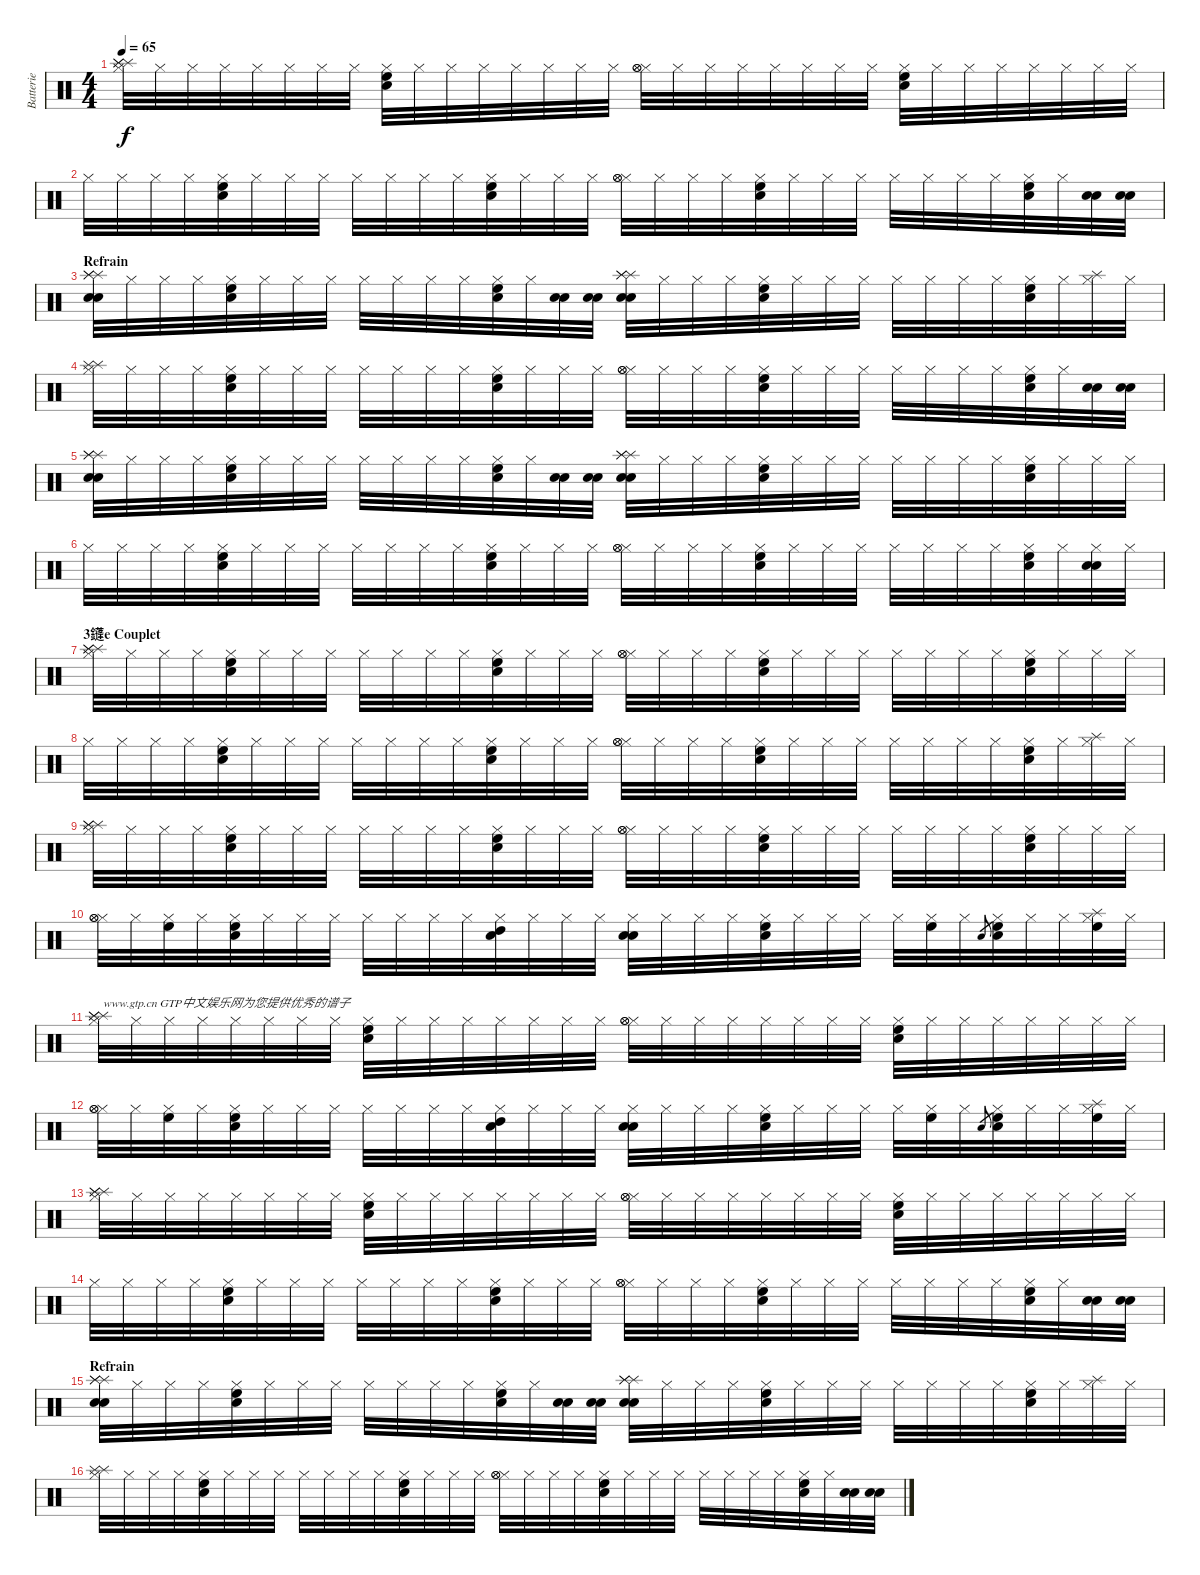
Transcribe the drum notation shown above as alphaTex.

\track ("Batterie" "Batterie") {instrument percussion}
\staff {score}
\articulation defaults
\ts (4 4)
\tempo 65
\clef neutral
\ks c
("Hi-Hat (closed)" "Splash (hit)" "Splash (hit)" "Splash (hit)").32{dy f} "Hi-Hat (closed)".32 "Hi-Hat (closed)".32 "Hi-Hat (closed)".32 "Hi-Hat (closed)".32 "Hi-Hat (closed)".32 "Hi-Hat (closed)".32 "Hi-Hat (closed)".32 ("Hi-Hat (closed)" "Snare (hit) 2" "High Floor Tom (hit)").32 "Hi-Hat (closed)".32 "Hi-Hat (closed)".32 "Hi-Hat (closed)".32 "Hi-Hat (closed)".32 "Hi-Hat (closed)".32 "Hi-Hat (closed)".32 "Hi-Hat (closed)".32 ("Hi-Hat (closed)" "Hi-Hat (open)" "Hi-Hat (open)").32 "Hi-Hat (closed)".32 "Hi-Hat (closed)".32 "Hi-Hat (closed)".32 "Hi-Hat (closed)".32 "Hi-Hat (closed)".32 "Hi-Hat (closed)".32 "Hi-Hat (closed)".32 ("Hi-Hat (closed)" "Snare (hit) 2" "High Floor Tom (hit)").32 "Hi-Hat (closed)".32 "Hi-Hat (closed)".32 "Hi-Hat (closed)".32 "Hi-Hat (closed)".32 "Hi-Hat (closed)".32 "Hi-Hat (closed)".32 "Hi-Hat (closed)".32 |
"Hi-Hat (closed)".32 "Hi-Hat (closed)".32 "Hi-Hat (closed)".32 "Hi-Hat (closed)".32 ("Hi-Hat (closed)" "Snare (hit) 2" "High Floor Tom (hit)").32 "Hi-Hat (closed)".32 "Hi-Hat (closed)".32 "Hi-Hat (closed)".32 "Hi-Hat (closed)".32 "Hi-Hat (closed)".32 "Hi-Hat (closed)".32 "Hi-Hat (closed)".32 ("Hi-Hat (closed)" "Snare (hit) 2" "High Floor Tom (hit)").32 "Hi-Hat (closed)".32 "Hi-Hat (closed)".32 "Hi-Hat (closed)".32 ("Hi-Hat (closed)" "Hi-Hat (open)" "Hi-Hat (open)").32 "Hi-Hat (closed)".32 "Hi-Hat (closed)".32 "Hi-Hat (closed)".32 ("Hi-Hat (closed)" "Snare (hit) 2" "High Floor Tom (hit)").32 "Hi-Hat (closed)".32 "Hi-Hat (closed)".32 "Hi-Hat (closed)".32 "Hi-Hat (closed)".32 "Hi-Hat (closed)".32 "Hi-Hat (closed)".32 "Hi-Hat (closed)".32 ("Hi-Hat (closed)" "Snare (hit) 2" "High Floor Tom (hit)").32 "Hi-Hat (closed)".32 ("Snare (hit) 2" "Snare (hit) 2").32 ("Snare (hit) 2" "Snare (hit) 2").32 |
\section ("" "Refrain")
("Snare (hit) 2" "Snare (hit) 2" "Splash (hit)" "Splash (hit)" "Splash (hit)").32 "Hi-Hat (closed)".32 "Hi-Hat (closed)".32 "Hi-Hat (closed)".32 ("Hi-Hat (closed)" "Snare (hit) 2" "High Floor Tom (hit)").32 "Hi-Hat (closed)".32 "Hi-Hat (closed)".32 "Hi-Hat (closed)".32 "Hi-Hat (closed)".32 "Hi-Hat (closed)".32 "Hi-Hat (closed)".32 "Hi-Hat (closed)".32 ("Hi-Hat (closed)" "Snare (hit) 2" "High Floor Tom (hit)").32 "Hi-Hat (closed)".32 ("Snare (hit) 2" "Snare (hit) 2").32 ("Snare (hit) 2" "Snare (hit) 2").32 ("Snare (hit) 2" "Snare (hit) 2" "Splash (hit)" "Splash (hit)" "Splash (hit)").32 "Hi-Hat (closed)".32 "Hi-Hat (closed)".32 "Hi-Hat (closed)".32 ("Hi-Hat (closed)" "Snare (hit) 2" "High Floor Tom (hit)").32 "Hi-Hat (closed)".32 "Hi-Hat (closed)".32 "Hi-Hat (closed)".32 "Hi-Hat (closed)".32 "Hi-Hat (closed)".32 "Hi-Hat (closed)".32 "Hi-Hat (closed)".32 ("Hi-Hat (closed)" "Snare (hit) 2" "High Floor Tom (hit)").32 "Hi-Hat (closed)".32 ("Hi-Hat (closed)" "Splash (hit)").32 "Hi-Hat (closed)".32 |
("Hi-Hat (closed)" "Splash (hit)" "Splash (hit)").32 "Hi-Hat (closed)".32 "Hi-Hat (closed)".32 "Hi-Hat (closed)".32 ("Hi-Hat (closed)" "Snare (hit) 2" "High Floor Tom (hit)").32 "Hi-Hat (closed)".32 "Hi-Hat (closed)".32 "Hi-Hat (closed)".32 "Hi-Hat (closed)".32 "Hi-Hat (closed)".32 "Hi-Hat (closed)".32 "Hi-Hat (closed)".32 ("Hi-Hat (closed)" "Snare (hit) 2" "High Floor Tom (hit)").32 "Hi-Hat (closed)".32 "Hi-Hat (closed)".32 "Hi-Hat (closed)".32 ("Hi-Hat (closed)" "Hi-Hat (open)" "Hi-Hat (open)").32 "Hi-Hat (closed)".32 "Hi-Hat (closed)".32 "Hi-Hat (closed)".32 ("Hi-Hat (closed)" "Snare (hit) 2" "High Floor Tom (hit)").32 "Hi-Hat (closed)".32 "Hi-Hat (closed)".32 "Hi-Hat (closed)".32 "Hi-Hat (closed)".32 "Hi-Hat (closed)".32 "Hi-Hat (closed)".32 "Hi-Hat (closed)".32 ("Hi-Hat (closed)" "Snare (hit) 2" "High Floor Tom (hit)").32 "Hi-Hat (closed)".32 ("Snare (hit) 2" "Snare (hit) 2").32 ("Snare (hit) 2" "Snare (hit) 2").32 |
("Snare (hit) 2" "Snare (hit) 2" "Splash (hit)" "Splash (hit)" "Splash (hit)").32 "Hi-Hat (closed)".32 "Hi-Hat (closed)".32 "Hi-Hat (closed)".32 ("Hi-Hat (closed)" "Snare (hit) 2" "High Floor Tom (hit)").32 "Hi-Hat (closed)".32 "Hi-Hat (closed)".32 "Hi-Hat (closed)".32 "Hi-Hat (closed)".32 "Hi-Hat (closed)".32 "Hi-Hat (closed)".32 "Hi-Hat (closed)".32 ("Hi-Hat (closed)" "Snare (hit) 2" "High Floor Tom (hit)").32 "Hi-Hat (closed)".32 ("Snare (hit) 2" "Snare (hit) 2").32 ("Snare (hit) 2" "Snare (hit) 2").32 ("Snare (hit) 2" "Snare (hit) 2" "Splash (hit)" "Splash (hit)" "Splash (hit)").32 "Hi-Hat (closed)".32 "Hi-Hat (closed)".32 "Hi-Hat (closed)".32 ("Hi-Hat (closed)" "Snare (hit) 2" "High Floor Tom (hit)").32 "Hi-Hat (closed)".32 "Hi-Hat (closed)".32 "Hi-Hat (closed)".32 "Hi-Hat (closed)".32 "Hi-Hat (closed)".32 "Hi-Hat (closed)".32 "Hi-Hat (closed)".32 ("Hi-Hat (closed)" "Snare (hit) 2" "High Floor Tom (hit)").32 "Hi-Hat (closed)".32 "Hi-Hat (closed)".32 "Hi-Hat (closed)".32 |
"Hi-Hat (closed)".32 "Hi-Hat (closed)".32 "Hi-Hat (closed)".32 "Hi-Hat (closed)".32 ("Hi-Hat (closed)" "Snare (hit) 2" "High Floor Tom (hit)").32 "Hi-Hat (closed)".32 "Hi-Hat (closed)".32 "Hi-Hat (closed)".32 "Hi-Hat (closed)".32 "Hi-Hat (closed)".32 "Hi-Hat (closed)".32 "Hi-Hat (closed)".32 ("Hi-Hat (closed)" "Snare (hit) 2" "High Floor Tom (hit)").32 "Hi-Hat (closed)".32 "Hi-Hat (closed)".32 "Hi-Hat (closed)".32 ("Hi-Hat (closed)" "Hi-Hat (open)" "Hi-Hat (open)").32 "Hi-Hat (closed)".32 "Hi-Hat (closed)".32 "Hi-Hat (closed)".32 ("Hi-Hat (closed)" "Snare (hit) 2" "High Floor Tom (hit)").32 "Hi-Hat (closed)".32 "Hi-Hat (closed)".32 "Hi-Hat (closed)".32 "Hi-Hat (closed)".32 "Hi-Hat (closed)".32 "Hi-Hat (closed)".32 "Hi-Hat (closed)".32 ("Hi-Hat (closed)" "Snare (hit) 2" "High Floor Tom (hit)").32 "Hi-Hat (closed)".32 ("Hi-Hat (closed)" "Snare (hit) 2" "Snare (hit) 2").32 "Hi-Hat (closed)".32 |
\section ("" "3鑝e Couplet")
("Hi-Hat (closed)" "Splash (hit)" "Splash (hit)" "Splash (hit)").32 "Hi-Hat (closed)".32 "Hi-Hat (closed)".32 "Hi-Hat (closed)".32 ("Hi-Hat (closed)" "Snare (hit) 2" "High Floor Tom (hit)").32 "Hi-Hat (closed)".32 "Hi-Hat (closed)".32 "Hi-Hat (closed)".32 "Hi-Hat (closed)".32 "Hi-Hat (closed)".32 "Hi-Hat (closed)".32 "Hi-Hat (closed)".32 ("Hi-Hat (closed)" "Snare (hit) 2" "High Floor Tom (hit)").32 "Hi-Hat (closed)".32 "Hi-Hat (closed)".32 "Hi-Hat (closed)".32 ("Hi-Hat (closed)" "Hi-Hat (open)" "Hi-Hat (open)").32 "Hi-Hat (closed)".32 "Hi-Hat (closed)".32 "Hi-Hat (closed)".32 ("Hi-Hat (closed)" "Snare (hit) 2" "High Floor Tom (hit)").32 "Hi-Hat (closed)".32 "Hi-Hat (closed)".32 "Hi-Hat (closed)".32 "Hi-Hat (closed)".32 "Hi-Hat (closed)".32 "Hi-Hat (closed)".32 "Hi-Hat (closed)".32 ("Hi-Hat (closed)" "Snare (hit) 2" "High Floor Tom (hit)").32 "Hi-Hat (closed)".32 "Hi-Hat (closed)".32 "Hi-Hat (closed)".32 |
"Hi-Hat (closed)".32 "Hi-Hat (closed)".32 "Hi-Hat (closed)".32 "Hi-Hat (closed)".32 ("Hi-Hat (closed)" "Snare (hit) 2" "High Floor Tom (hit)").32 "Hi-Hat (closed)".32 "Hi-Hat (closed)".32 "Hi-Hat (closed)".32 "Hi-Hat (closed)".32 "Hi-Hat (closed)".32 "Hi-Hat (closed)".32 "Hi-Hat (closed)".32 ("Hi-Hat (closed)" "Snare (hit) 2" "High Floor Tom (hit)").32 "Hi-Hat (closed)".32 "Hi-Hat (closed)".32 "Hi-Hat (closed)".32 ("Hi-Hat (closed)" "Hi-Hat (open)" "Hi-Hat (open)").32 "Hi-Hat (closed)".32 "Hi-Hat (closed)".32 "Hi-Hat (closed)".32 ("Hi-Hat (closed)" "Snare (hit) 2" "High Floor Tom (hit)").32 "Hi-Hat (closed)".32 "Hi-Hat (closed)".32 "Hi-Hat (closed)".32 "Hi-Hat (closed)".32 "Hi-Hat (closed)".32 "Hi-Hat (closed)".32 "Hi-Hat (closed)".32 ("Hi-Hat (closed)" "Snare (hit) 2" "High Floor Tom (hit)").32 "Hi-Hat (closed)".32 ("Hi-Hat (closed)" "Splash (hit)").32 "Hi-Hat (closed)".32 |
("Hi-Hat (closed)" "Splash (hit)" "Splash (hit)" "Splash (hit)").32 "Hi-Hat (closed)".32 "Hi-Hat (closed)".32 "Hi-Hat (closed)".32 ("Hi-Hat (closed)" "Snare (hit) 2" "High Floor Tom (hit)").32 "Hi-Hat (closed)".32 "Hi-Hat (closed)".32 "Hi-Hat (closed)".32 "Hi-Hat (closed)".32 "Hi-Hat (closed)".32 "Hi-Hat (closed)".32 "Hi-Hat (closed)".32 ("Hi-Hat (closed)" "Snare (hit) 2" "High Floor Tom (hit)").32 "Hi-Hat (closed)".32 "Hi-Hat (closed)".32 "Hi-Hat (closed)".32 ("Hi-Hat (closed)" "Hi-Hat (open)" "Hi-Hat (open)").32 "Hi-Hat (closed)".32 "Hi-Hat (closed)".32 "Hi-Hat (closed)".32 ("Hi-Hat (closed)" "Snare (hit) 2" "High Floor Tom (hit)").32 "Hi-Hat (closed)".32 "Hi-Hat (closed)".32 "Hi-Hat (closed)".32 "Hi-Hat (closed)".32 "Hi-Hat (closed)".32 "Hi-Hat (closed)".32 "Hi-Hat (closed)".32 ("Hi-Hat (closed)" "Snare (hit) 2" "High Floor Tom (hit)").32 "Hi-Hat (closed)".32 "Hi-Hat (closed)".32 "Hi-Hat (closed)".32 |
("Hi-Hat (closed)" "Hi-Hat (open)" "Hi-Hat (open)").32 "Hi-Hat (closed)".32 ("Hi-Hat (closed)" "High Floor Tom (hit)").32 "Hi-Hat (closed)".32 ("Hi-Hat (closed)" "Snare (hit) 2" "High Floor Tom (hit)").32 "Hi-Hat (closed)".32 "Hi-Hat (closed)".32 "Hi-Hat (closed)".32 "Hi-Hat (closed)".32 "Hi-Hat (closed)".32 "Hi-Hat (closed)".32 "Hi-Hat (closed)".32 ("Hi-Hat (closed)" "Snare (hit) 2" "High Tom (hit)").32 "Hi-Hat (closed)".32 "Hi-Hat (closed)".32 "Hi-Hat (closed)".32 ("Hi-Hat (closed)" "Snare (hit) 2" "Snare (hit) 2").32 "Hi-Hat (closed)".32 "Hi-Hat (closed)".32 "Hi-Hat (closed)".32 ("Hi-Hat (closed)" "Snare (hit) 2" "High Floor Tom (hit)").32 "Hi-Hat (closed)".32 "Hi-Hat (closed)".32 "Hi-Hat (closed)".32 "Hi-Hat (closed)".32 ("Hi-Hat (closed)" "High Floor Tom (hit)").32 "Hi-Hat (closed)".32 "Snare (hit) 2".8{gr} ("Hi-Hat (closed)" "Snare (hit) 2" "High Floor Tom (hit)").32 "Hi-Hat (closed)".32 "Hi-Hat (closed)".32 ("Hi-Hat (closed)" "Splash (hit)" "High Floor Tom (hit)").32 "Hi-Hat (closed)".32 |
("Hi-Hat (closed)" "Splash (hit)" "Splash (hit)" "Splash (hit)").32{txt "www.gtp.cn GTP中文娱乐网为您提供优秀的谱子"} "Hi-Hat (closed)".32 "Hi-Hat (closed)".32 "Hi-Hat (closed)".32 "Hi-Hat (closed)".32 "Hi-Hat (closed)".32 "Hi-Hat (closed)".32 "Hi-Hat (closed)".32 ("Hi-Hat (closed)" "Snare (hit) 2" "High Floor Tom (hit)").32 "Hi-Hat (closed)".32 "Hi-Hat (closed)".32 "Hi-Hat (closed)".32 "Hi-Hat (closed)".32 "Hi-Hat (closed)".32 "Hi-Hat (closed)".32 "Hi-Hat (closed)".32 ("Hi-Hat (closed)" "Hi-Hat (open)" "Hi-Hat (open)").32 "Hi-Hat (closed)".32 "Hi-Hat (closed)".32 "Hi-Hat (closed)".32 "Hi-Hat (closed)".32 "Hi-Hat (closed)".32 "Hi-Hat (closed)".32 "Hi-Hat (closed)".32 ("Hi-Hat (closed)" "Snare (hit) 2" "High Floor Tom (hit)").32 "Hi-Hat (closed)".32 "Hi-Hat (closed)".32 "Hi-Hat (closed)".32 "Hi-Hat (closed)".32 "Hi-Hat (closed)".32 "Hi-Hat (closed)".32 "Hi-Hat (closed)".32 |
("Hi-Hat (closed)" "Hi-Hat (open)" "Hi-Hat (open)").32 "Hi-Hat (closed)".32 ("Hi-Hat (closed)" "High Floor Tom (hit)").32 "Hi-Hat (closed)".32 ("Hi-Hat (closed)" "Snare (hit) 2" "High Floor Tom (hit)").32 "Hi-Hat (closed)".32 "Hi-Hat (closed)".32 "Hi-Hat (closed)".32 "Hi-Hat (closed)".32 "Hi-Hat (closed)".32 "Hi-Hat (closed)".32 "Hi-Hat (closed)".32 ("Hi-Hat (closed)" "Snare (hit) 2" "High Tom (hit)").32 "Hi-Hat (closed)".32 "Hi-Hat (closed)".32 "Hi-Hat (closed)".32 ("Hi-Hat (closed)" "Snare (hit) 2" "Snare (hit) 2").32 "Hi-Hat (closed)".32 "Hi-Hat (closed)".32 "Hi-Hat (closed)".32 ("Hi-Hat (closed)" "Snare (hit) 2" "High Floor Tom (hit)").32 "Hi-Hat (closed)".32 "Hi-Hat (closed)".32 "Hi-Hat (closed)".32 "Hi-Hat (closed)".32 ("Hi-Hat (closed)" "High Floor Tom (hit)").32 "Hi-Hat (closed)".32 "Snare (hit) 2".8{gr} ("Hi-Hat (closed)" "Snare (hit) 2" "High Floor Tom (hit)").32 "Hi-Hat (closed)".32 "Hi-Hat (closed)".32 ("Hi-Hat (closed)" "Splash (hit)" "High Floor Tom (hit)").32 "Hi-Hat (closed)".32 |
("Hi-Hat (closed)" "Splash (hit)" "Splash (hit)" "Splash (hit)").32 "Hi-Hat (closed)".32 "Hi-Hat (closed)".32 "Hi-Hat (closed)".32 "Hi-Hat (closed)".32 "Hi-Hat (closed)".32 "Hi-Hat (closed)".32 "Hi-Hat (closed)".32 ("Hi-Hat (closed)" "Snare (hit) 2" "High Floor Tom (hit)").32 "Hi-Hat (closed)".32 "Hi-Hat (closed)".32 "Hi-Hat (closed)".32 "Hi-Hat (closed)".32 "Hi-Hat (closed)".32 "Hi-Hat (closed)".32 "Hi-Hat (closed)".32 ("Hi-Hat (closed)" "Hi-Hat (open)" "Hi-Hat (open)").32 "Hi-Hat (closed)".32 "Hi-Hat (closed)".32 "Hi-Hat (closed)".32 "Hi-Hat (closed)".32 "Hi-Hat (closed)".32 "Hi-Hat (closed)".32 "Hi-Hat (closed)".32 ("Hi-Hat (closed)" "Snare (hit) 2" "High Floor Tom (hit)").32 "Hi-Hat (closed)".32 "Hi-Hat (closed)".32 "Hi-Hat (closed)".32 "Hi-Hat (closed)".32 "Hi-Hat (closed)".32 "Hi-Hat (closed)".32 "Hi-Hat (closed)".32 |
"Hi-Hat (closed)".32 "Hi-Hat (closed)".32 "Hi-Hat (closed)".32 "Hi-Hat (closed)".32 ("Hi-Hat (closed)" "Snare (hit) 2" "High Floor Tom (hit)").32 "Hi-Hat (closed)".32 "Hi-Hat (closed)".32 "Hi-Hat (closed)".32 "Hi-Hat (closed)".32 "Hi-Hat (closed)".32 "Hi-Hat (closed)".32 "Hi-Hat (closed)".32 ("Hi-Hat (closed)" "Snare (hit) 2" "High Floor Tom (hit)").32 "Hi-Hat (closed)".32 "Hi-Hat (closed)".32 "Hi-Hat (closed)".32 ("Hi-Hat (closed)" "Hi-Hat (open)" "Hi-Hat (open)").32 "Hi-Hat (closed)".32 "Hi-Hat (closed)".32 "Hi-Hat (closed)".32 ("Hi-Hat (closed)" "Snare (hit) 2" "High Floor Tom (hit)").32 "Hi-Hat (closed)".32 "Hi-Hat (closed)".32 "Hi-Hat (closed)".32 "Hi-Hat (closed)".32 "Hi-Hat (closed)".32 "Hi-Hat (closed)".32 "Hi-Hat (closed)".32 ("Hi-Hat (closed)" "Snare (hit) 2" "High Floor Tom (hit)").32 "Hi-Hat (closed)".32 ("Snare (hit) 2" "Snare (hit) 2").32 ("Snare (hit) 2" "Snare (hit) 2").32 |
\section ("" "Refrain")
("Snare (hit) 2" "Snare (hit) 2" "Splash (hit)" "Splash (hit)" "Splash (hit)").32 "Hi-Hat (closed)".32 "Hi-Hat (closed)".32 "Hi-Hat (closed)".32 ("Hi-Hat (closed)" "Snare (hit) 2" "High Floor Tom (hit)").32 "Hi-Hat (closed)".32 "Hi-Hat (closed)".32 "Hi-Hat (closed)".32 "Hi-Hat (closed)".32 "Hi-Hat (closed)".32 "Hi-Hat (closed)".32 "Hi-Hat (closed)".32 ("Hi-Hat (closed)" "Snare (hit) 2" "High Floor Tom (hit)").32 "Hi-Hat (closed)".32 ("Snare (hit) 2" "Snare (hit) 2").32 ("Snare (hit) 2" "Snare (hit) 2").32 ("Snare (hit) 2" "Snare (hit) 2" "Splash (hit)" "Splash (hit)" "Splash (hit)").32 "Hi-Hat (closed)".32 "Hi-Hat (closed)".32 "Hi-Hat (closed)".32 ("Hi-Hat (closed)" "Snare (hit) 2" "High Floor Tom (hit)").32 "Hi-Hat (closed)".32 "Hi-Hat (closed)".32 "Hi-Hat (closed)".32 "Hi-Hat (closed)".32 "Hi-Hat (closed)".32 "Hi-Hat (closed)".32 "Hi-Hat (closed)".32 ("Hi-Hat (closed)" "Snare (hit) 2" "High Floor Tom (hit)").32 "Hi-Hat (closed)".32 ("Hi-Hat (closed)" "Splash (hit)").32 "Hi-Hat (closed)".32 |
("Hi-Hat (closed)" "Splash (hit)" "Splash (hit)").32 "Hi-Hat (closed)".32 "Hi-Hat (closed)".32 "Hi-Hat (closed)".32 ("Hi-Hat (closed)" "Snare (hit) 2" "High Floor Tom (hit)").32 "Hi-Hat (closed)".32 "Hi-Hat (closed)".32 "Hi-Hat (closed)".32 "Hi-Hat (closed)".32 "Hi-Hat (closed)".32 "Hi-Hat (closed)".32 "Hi-Hat (closed)".32 ("Hi-Hat (closed)" "Snare (hit) 2" "High Floor Tom (hit)").32 "Hi-Hat (closed)".32 "Hi-Hat (closed)".32 "Hi-Hat (closed)".32 ("Hi-Hat (closed)" "Hi-Hat (open)" "Hi-Hat (open)").32 "Hi-Hat (closed)".32 "Hi-Hat (closed)".32 "Hi-Hat (closed)".32 ("Hi-Hat (closed)" "Snare (hit) 2" "High Floor Tom (hit)").32 "Hi-Hat (closed)".32 "Hi-Hat (closed)".32 "Hi-Hat (closed)".32 "Hi-Hat (closed)".32 "Hi-Hat (closed)".32 "Hi-Hat (closed)".32 "Hi-Hat (closed)".32 ("Hi-Hat (closed)" "Snare (hit) 2" "High Floor Tom (hit)").32 "Hi-Hat (closed)".32 ("Snare (hit) 2" "Snare (hit) 2").32 ("Snare (hit) 2" "Snare (hit) 2").32
